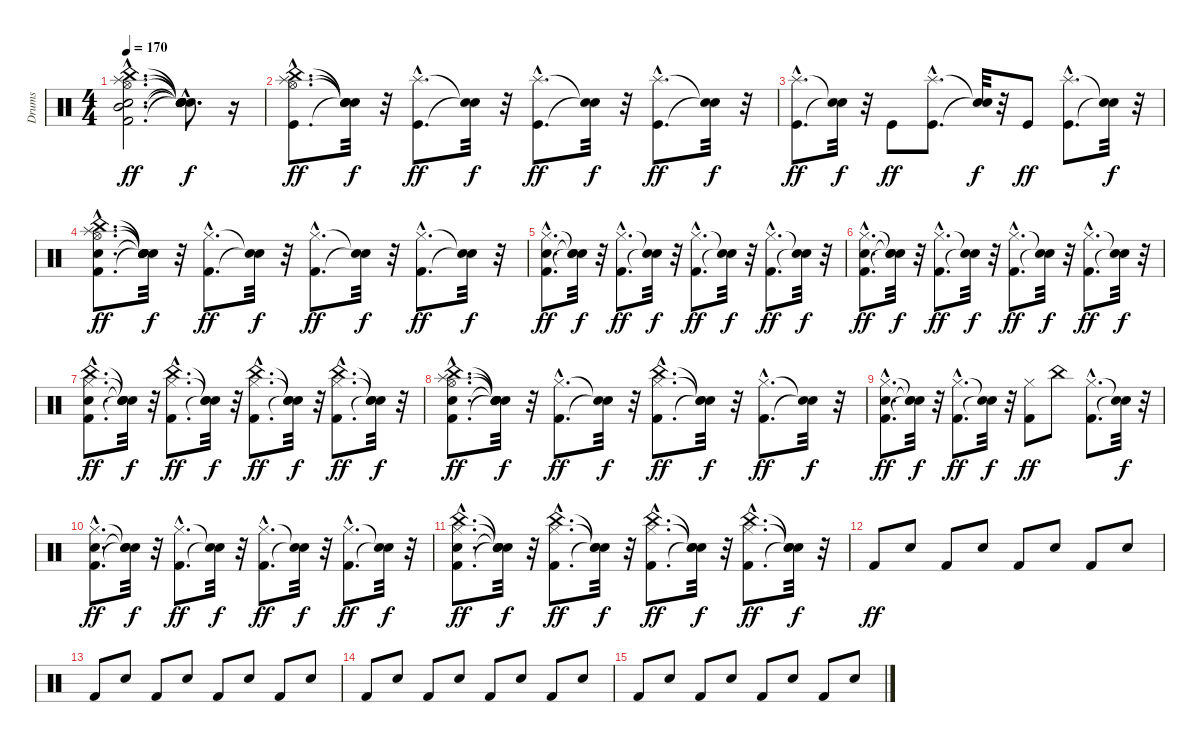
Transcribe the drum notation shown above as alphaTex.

\track ("Drums" "Drums") {instrument percussion}
\staff {score}
\articulation defaults
\ts (4 4)
\tempo 170
\clef neutral
\ks c
("Kick (hit) 2"{hac} "Electric Snare (hit)"{hac} "Hi-Hat (open)"{hac} "Mid Tom (hit)"{hac} "China (hit)"{hac} "Splash (hit)"{hac}).2{d dy ff} ("Snare (hit)"{hac t} "Snare (hit)"{hac t} "Snare (hit)"{hac t} "Snare (hit)"{hac t} "Snare (hit)"{hac t} "Snare (hit)"{hac t}).8{d dy f} r.16 |
("Kick (hit)"{hac} "Hi-Hat (open)"{hac} "China (hit)"{hac} "Splash (hit)"{hac}).8{d dy ff} ("Snare (hit)"{t} "Snare (hit)"{t} "Snare (hit)"{t} "Snare (hit)"{t}).32{dy f} r.32 ("Kick (hit)"{hac} "Splash (hit)"{hac}).8{d dy ff} ("Snare (hit)"{t} "Snare (hit)"{t}).32{dy f} r.32 ("Kick (hit)"{hac} "Splash (hit)"{hac}).8{d dy ff} ("Snare (hit)"{t} "Snare (hit)"{t}).32{dy f} r.32 ("Kick (hit)"{hac} "Splash (hit)"{hac}).8{d dy ff} ("Snare (hit)"{t} "Snare (hit)"{t}).32{dy f} r.32 |
("Kick (hit)"{hac} "Splash (hit)"{hac}).8{d dy ff} ("Snare (hit)"{t} "Snare (hit)"{t}).32{dy f} r.32 "Kick (hit)".8{dy ff} ("Kick (hit)"{hac} "Splash (hit)"{hac}).8{d} ("Snare (hit)"{t} "Snare (hit)"{t}).32{dy f} r.32 "Kick (hit)".8{dy ff} ("Kick (hit)"{hac} "Splash (hit)"{hac}).8{d} ("Snare (hit)"{t} "Snare (hit)"{t}).32{dy f} r.32 |
("Kick (hit) 2"{hac} "Electric Snare (hit)"{hac} "Hi-Hat (open)"{hac} "China (hit)"{hac} "Splash (hit)"{hac}).8{d dy ff} ("Snare (hit)"{t} "Snare (hit)"{t} "Snare (hit)"{t} "Snare (hit)"{t} "Snare (hit)"{t}).32{dy f} r.32 ("Kick (hit) 2"{hac} "Hi-Hat (closed)"{hac}).8{d dy ff} ("Snare (hit)"{t} "Snare (hit)"{t}).32{dy f} r.32 ("Kick (hit) 2"{hac} "Hi-Hat (closed)"{hac}).8{d dy ff} ("Snare (hit)"{t} "Snare (hit)"{t}).32{dy f} r.32 ("Kick (hit) 2"{hac} "Hi-Hat (closed)"{hac}).8{d dy ff} ("Snare (hit)"{t} "Snare (hit)"{t}).32{dy f} r.32 |
("Kick (hit) 2"{hac} "Electric Snare (hit)"{hac} "Hi-Hat (closed)"{hac}).8{d dy ff} ("Snare (hit)"{t} "Snare (hit)"{t} "Snare (hit)"{t}).32{dy f} r.32 ("Kick (hit) 2"{hac} "Hi-Hat (closed)"{hac}).8{d dy ff} ("Snare (hit)"{t} "Snare (hit)"{t}).32{dy f} r.32 ("Kick (hit) 2"{hac} "Hi-Hat (closed)"{hac}).8{d dy ff} ("Snare (hit)"{t} "Snare (hit)"{t}).32{dy f} r.32 ("Kick (hit) 2"{hac} "Hi-Hat (closed)"{hac}).8{d dy ff} ("Snare (hit)"{t} "Snare (hit)"{t}).32{dy f} r.32 |
("Kick (hit) 2"{hac} "Electric Snare (hit)"{hac} "Hi-Hat (closed)"{hac}).8{d dy ff} ("Snare (hit)"{t} "Snare (hit)"{t} "Snare (hit)"{t}).32{dy f} r.32 ("Kick (hit) 2"{hac} "Hi-Hat (closed)"{hac}).8{d dy ff} ("Snare (hit)"{t} "Snare (hit)"{t}).32{dy f} r.32 ("Kick (hit) 2"{hac} "Hi-Hat (closed)"{hac}).8{d dy ff} ("Snare (hit)"{t} "Snare (hit)"{t}).32{dy f} r.32 ("Kick (hit) 2"{hac} "Hi-Hat (closed)"{hac}).8{d dy ff} ("Snare (hit)"{t} "Snare (hit)"{t}).32{dy f} r.32 |
("Kick (hit) 2"{hac} "Electric Snare (hit)"{hac} "Hi-Hat (closed)"{hac} "China (hit)"{hac}).8{d dy ff} ("Snare (hit)"{t} "Snare (hit)"{t} "Snare (hit)"{t} "Snare (hit)"{t}).32{dy f} r.32 ("Kick (hit) 2"{hac} "Hi-Hat (closed)"{hac} "China (hit)"{hac}).8{d dy ff} ("Snare (hit)"{t} "Snare (hit)"{t} "Snare (hit)"{t}).32{dy f} r.32 ("Kick (hit) 2"{hac} "Hi-Hat (closed)"{hac} "China (hit)"{hac}).8{d dy ff} ("Snare (hit)"{t} "Snare (hit)"{t} "Snare (hit)"{t}).32{dy f} r.32 ("Kick (hit) 2"{hac} "Hi-Hat (closed)"{hac} "China (hit)"{hac}).8{d dy ff} ("Snare (hit)"{t} "Snare (hit)"{t} "Snare (hit)"{t}).32{dy f} r.32 |
("Kick (hit) 2"{hac} "Electric Snare (hit)"{hac} "Hi-Hat (open)"{hac} "China (hit)"{hac} "Splash (hit)"{hac}).8{d dy ff} ("Snare (hit)"{t} "Snare (hit)"{t} "Snare (hit)"{t} "Snare (hit)"{t} "Snare (hit)"{t}).32{dy f} r.32 ("Kick (hit) 2"{hac} "Hi-Hat (closed)"{hac}).8{d dy ff} ("Snare (hit)"{t} "Snare (hit)"{t}).32{dy f} r.32 ("Kick (hit) 2"{hac} "Hi-Hat (closed)"{hac} "China (hit)"{hac}).8{d dy ff} ("Snare (hit)"{t} "Snare (hit)"{t} "Snare (hit)"{t}).32{dy f} r.32 ("Kick (hit) 2"{hac} "Hi-Hat (closed)"{hac}).8{d dy ff} ("Snare (hit)"{t} "Snare (hit)"{t}).32{dy f} r.32 |
("Kick (hit) 2"{hac} "Electric Snare (hit)"{hac} "Hi-Hat (closed)"{hac}).8{d dy ff} ("Snare (hit)"{t} "Snare (hit)"{t} "Snare (hit)"{t}).32{dy f} r.32 ("Kick (hit) 2"{hac} "Hi-Hat (closed)"{hac}).8{d dy ff} ("Snare (hit)"{t} "Snare (hit)"{t}).32{dy f} r.32 ("Kick (hit) 2" "Hi-Hat (closed)").8{dy ff} "China (hit)".8 ("Kick (hit) 2"{hac} "Hi-Hat (closed)"{hac}).8{d} ("Snare (hit)"{t} "Snare (hit)"{t}).32{dy f} r.32 |
("Kick (hit) 2"{hac} "Electric Snare (hit)"{hac} "Hi-Hat (closed)"{hac}).8{d dy ff} ("Snare (hit)"{t} "Snare (hit)"{t} "Snare (hit)"{t}).32{dy f} r.32 ("Kick (hit) 2"{hac} "Hi-Hat (closed)"{hac}).8{d dy ff} ("Snare (hit)"{t} "Snare (hit)"{t}).32{dy f} r.32 ("Kick (hit) 2"{hac} "Hi-Hat (closed)"{hac}).8{d dy ff} ("Snare (hit)"{t} "Snare (hit)"{t}).32{dy f} r.32 ("Kick (hit) 2"{hac} "Hi-Hat (closed)"{hac}).8{d dy ff} ("Snare (hit)"{t} "Snare (hit)"{t}).32{dy f} r.32 |
("Kick (hit) 2"{hac} "Electric Snare (hit)"{hac} "Hi-Hat (closed)"{hac} "China (hit)"{hac}).8{d dy ff} ("Snare (hit)"{t} "Snare (hit)"{t} "Snare (hit)"{t} "Snare (hit)"{t}).32{dy f} r.32 ("Kick (hit) 2"{hac} "Hi-Hat (closed)"{hac} "China (hit)"{hac}).8{d dy ff} ("Snare (hit)"{t} "Snare (hit)"{t} "Snare (hit)"{t}).32{dy f} r.32 ("Kick (hit) 2"{hac} "Hi-Hat (closed)"{hac} "China (hit)"{hac}).8{d dy ff} ("Snare (hit)"{t} "Snare (hit)"{t} "Snare (hit)"{t}).32{dy f} r.32 ("Kick (hit) 2"{hac} "Hi-Hat (closed)"{hac} "China (hit)"{hac}).8{d dy ff} ("Snare (hit)"{t} "Snare (hit)"{t} "Snare (hit)"{t}).32{dy f} r.32 |
"Kick (hit) 2".8{dy ff} "Electric Snare (hit)".8 "Kick (hit) 2".8 "Electric Snare (hit)".8 "Kick (hit) 2".8 "Electric Snare (hit)".8 "Kick (hit) 2".8 "Electric Snare (hit)".8 |
"Kick (hit) 2".8 "Electric Snare (hit)".8 "Kick (hit) 2".8 "Electric Snare (hit)".8 "Kick (hit) 2".8 "Electric Snare (hit)".8 "Kick (hit) 2".8 "Electric Snare (hit)".8 |
"Kick (hit) 2".8 "Electric Snare (hit)".8 "Kick (hit) 2".8 "Electric Snare (hit)".8 "Kick (hit) 2".8 "Electric Snare (hit)".8 "Kick (hit) 2".8 "Electric Snare (hit)".8 |
"Kick (hit) 2".8 "Electric Snare (hit)".8 "Kick (hit) 2".8 "Electric Snare (hit)".8 "Kick (hit) 2".8 "Electric Snare (hit)".8 "Kick (hit) 2".8 "Electric Snare (hit)".8
